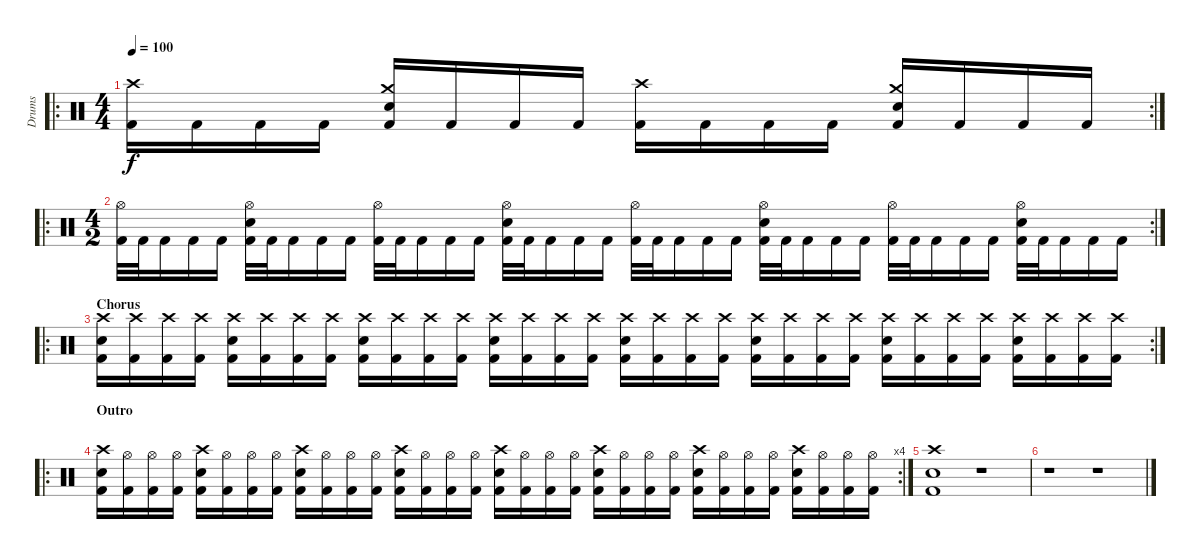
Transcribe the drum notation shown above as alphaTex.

\track ("Drums" "Drums") {instrument percussion}
\staff {score}
\articulation defaults
\ro
\rc 2
\ts (4 4)
\tempo 100
\clef neutral
\ks c
("Kick (hit) 2" "Crash high (hit)").16{dy f} "Kick (hit) 2".16 "Kick (hit) 2".16 "Kick (hit) 2".16 ("Kick (hit) 2" "Crash medium (hit)" "Electric Snare (hit)").16 "Kick (hit) 2".16 "Kick (hit) 2".16 "Kick (hit) 2".16 ("Kick (hit) 2" "Crash high (hit)").16 "Kick (hit) 2".16 "Kick (hit) 2".16 "Kick (hit) 2".16 ("Kick (hit) 2" "Crash medium (hit)" "Electric Snare (hit)").16 "Kick (hit) 2".16 "Kick (hit) 2".16 "Kick (hit) 2".16 |
\ro
\rc 2
\ts (4 2)
("Kick (hit) 2" "Hi-Hat (open)").32 "Kick (hit) 2".32 "Kick (hit) 2".16 "Kick (hit) 2".16 "Kick (hit) 2".16 ("Kick (hit) 2" "Hi-Hat (open)" "Electric Snare (hit)").32 "Kick (hit) 2".32 "Kick (hit) 2".16 "Kick (hit) 2".16 "Kick (hit) 2".16 ("Kick (hit) 2" "Hi-Hat (open)").32 "Kick (hit) 2".32 "Kick (hit) 2".16 "Kick (hit) 2".16 "Kick (hit) 2".16 ("Kick (hit) 2" "Hi-Hat (open)" "Electric Snare (hit)").32 "Kick (hit) 2".32 "Kick (hit) 2".16 "Kick (hit) 2".16 "Kick (hit) 2".16 ("Kick (hit) 2" "Hi-Hat (open)").32 "Kick (hit) 2".32 "Kick (hit) 2".16 "Kick (hit) 2".16 "Kick (hit) 2".16 ("Kick (hit) 2" "Hi-Hat (open)" "Electric Snare (hit)").32 "Kick (hit) 2".32 "Kick (hit) 2".16 "Kick (hit) 2".16 "Kick (hit) 2".16 ("Kick (hit) 2" "Hi-Hat (open)").32 "Kick (hit) 2".32 "Kick (hit) 2".16 "Kick (hit) 2".16 "Kick (hit) 2".16 ("Kick (hit) 2" "Hi-Hat (open)" "Electric Snare (hit)").32 "Kick (hit) 2".32 "Kick (hit) 2".16 "Kick (hit) 2".16 "Kick (hit) 2".16 |
\ro
\rc 2
\section ("" "Chorus")
("Crash high (hit)" "Kick (hit) 2" "Electric Snare (hit)").16 ("Crash high (hit)" "Kick (hit) 2").16 ("Crash high (hit)" "Kick (hit) 2").16 ("Crash high (hit)" "Kick (hit) 2").16 ("Crash high (hit)" "Kick (hit) 2" "Electric Snare (hit)").16 ("Crash high (hit)" "Kick (hit) 2").16 ("Crash high (hit)" "Kick (hit) 2").16 ("Crash high (hit)" "Kick (hit) 2").16 ("Crash high (hit)" "Kick (hit) 2" "Electric Snare (hit)").16 ("Crash high (hit)" "Kick (hit) 2").16 ("Crash high (hit)" "Kick (hit) 2").16 ("Crash high (hit)" "Kick (hit) 2").16 ("Crash high (hit)" "Kick (hit) 2" "Electric Snare (hit)").16 ("Crash high (hit)" "Kick (hit) 2").16 ("Crash high (hit)" "Kick (hit) 2").16 ("Crash high (hit)" "Kick (hit) 2").16 ("Crash high (hit)" "Kick (hit) 2" "Electric Snare (hit)").16 ("Crash high (hit)" "Kick (hit) 2").16 ("Crash high (hit)" "Kick (hit) 2").16 ("Crash high (hit)" "Kick (hit) 2").16 ("Crash high (hit)" "Kick (hit) 2" "Electric Snare (hit)").16 ("Crash high (hit)" "Kick (hit) 2").16 ("Crash high (hit)" "Kick (hit) 2").16 ("Crash high (hit)" "Kick (hit) 2").16 ("Crash high (hit)" "Kick (hit) 2" "Electric Snare (hit)").16 ("Crash high (hit)" "Kick (hit) 2").16 ("Crash high (hit)" "Kick (hit) 2").16 ("Crash high (hit)" "Kick (hit) 2").16 ("Crash high (hit)" "Kick (hit) 2" "Electric Snare (hit)").16 ("Crash high (hit)" "Kick (hit) 2").16 ("Crash high (hit)" "Kick (hit) 2").16 ("Crash high (hit)" "Kick (hit) 2").16 |
\ro
\rc 4
\section ("" "Outro")
("Crash high (hit)" "Kick (hit) 2" "Electric Snare (hit)").16 ("Hi-Hat (open)" "Kick (hit) 2").16 ("Hi-Hat (open)" "Kick (hit) 2").16 ("Hi-Hat (open)" "Kick (hit) 2").16 ("Crash high (hit)" "Kick (hit) 2" "Electric Snare (hit)").16 ("Hi-Hat (open)" "Kick (hit) 2").16 ("Hi-Hat (open)" "Kick (hit) 2").16 ("Hi-Hat (open)" "Kick (hit) 2").16 ("Crash high (hit)" "Kick (hit) 2" "Electric Snare (hit)").16 ("Hi-Hat (open)" "Kick (hit) 2").16 ("Hi-Hat (open)" "Kick (hit) 2").16 ("Hi-Hat (open)" "Kick (hit) 2").16 ("Crash high (hit)" "Kick (hit) 2" "Electric Snare (hit)").16 ("Hi-Hat (open)" "Kick (hit) 2").16 ("Hi-Hat (open)" "Kick (hit) 2").16 ("Hi-Hat (open)" "Kick (hit) 2").16 ("Crash high (hit)" "Kick (hit) 2" "Electric Snare (hit)").16 ("Hi-Hat (open)" "Kick (hit) 2").16 ("Hi-Hat (open)" "Kick (hit) 2").16 ("Hi-Hat (open)" "Kick (hit) 2").16 ("Crash high (hit)" "Kick (hit) 2" "Electric Snare (hit)").16 ("Hi-Hat (open)" "Kick (hit) 2").16 ("Hi-Hat (open)" "Kick (hit) 2").16 ("Hi-Hat (open)" "Kick (hit) 2").16 ("Crash high (hit)" "Kick (hit) 2" "Electric Snare (hit)").16 ("Hi-Hat (open)" "Kick (hit) 2").16 ("Hi-Hat (open)" "Kick (hit) 2").16 ("Hi-Hat (open)" "Kick (hit) 2").16 ("Crash high (hit)" "Kick (hit) 2" "Electric Snare (hit)").16 ("Hi-Hat (open)" "Kick (hit) 2").16 ("Hi-Hat (open)" "Kick (hit) 2").16 ("Hi-Hat (open)" "Kick (hit) 2").16 |
("Crash high (hit)" "Electric Snare (hit)" "Kick (hit) 2").1 r.1 |
r.1 r.1
